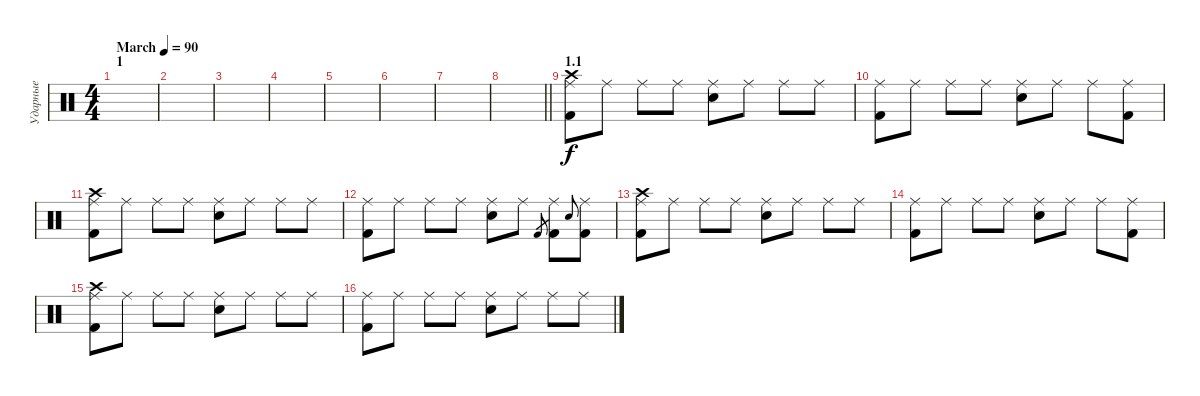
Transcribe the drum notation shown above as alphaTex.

\track ("Ударные" "Ударные") {instrument percussion}
\staff {score}
\articulation defaults
\ts (4 4)
\section ("" "1")
\tempo (90 "March")
\clef neutral
\ks c
|
|
|
|
|
|
|
\barLineRight lightlight
|
\section ("" "1.1")
("Crash high (hit)" "Ride (middle)" "Kick (hit) 2").8 "Ride (middle)".8 "Ride (middle)".8 "Ride (middle)".8 ("Ride (middle)" "Electric Snare (hit)").8 "Ride (middle)".8 "Ride (middle)".8 "Ride (middle)".8 |
("Ride (middle)" "Kick (hit) 2").8 "Ride (middle)".8 "Ride (middle)".8 "Ride (middle)".8 ("Ride (middle)" "Electric Snare (hit)").8 "Ride (middle)".8 "Ride (middle)".8 ("Ride (middle)" "Kick (hit) 2").8 |
("Crash high (hit)" "Ride (middle)" "Kick (hit) 2").8 "Ride (middle)".8 "Ride (middle)".8 "Ride (middle)".8 ("Ride (middle)" "Electric Snare (hit)").8 "Ride (middle)".8 "Ride (middle)".8 "Ride (middle)".8 |
("Ride (middle)" "Kick (hit) 2").8 "Ride (middle)".8 "Ride (middle)".8 "Ride (middle)".8 ("Ride (middle)" "Electric Snare (hit)").8 "Ride (middle)".8 "Kick (hit) 2".8{gr} ("Ride (middle)" "Kick (hit) 2").8 "Electric Snare (hit)".8{gr onbeat} ("Ride (middle)" "Kick (hit) 2").8 |
("Crash high (hit)" "Ride (middle)" "Kick (hit) 2").8 "Ride (middle)".8 "Ride (middle)".8 "Ride (middle)".8 ("Ride (middle)" "Electric Snare (hit)").8 "Ride (middle)".8 "Ride (middle)".8 "Ride (middle)".8 |
("Ride (middle)" "Kick (hit) 2").8 "Ride (middle)".8 "Ride (middle)".8 "Ride (middle)".8 ("Ride (middle)" "Electric Snare (hit)").8 "Ride (middle)".8 "Ride (middle)".8 ("Ride (middle)" "Kick (hit) 2").8 |
("Crash high (hit)" "Ride (middle)" "Kick (hit) 2").8 "Ride (middle)".8 "Ride (middle)".8 "Ride (middle)".8 ("Ride (middle)" "Electric Snare (hit)").8 "Ride (middle)".8 "Ride (middle)".8 "Ride (middle)".8 |
("Ride (middle)" "Kick (hit) 2").8 "Ride (middle)".8 "Ride (middle)".8 "Ride (middle)".8 ("Ride (middle)" "Electric Snare (hit)").8 "Ride (middle)".8 "Ride (middle)".8 "Ride (middle)".8
